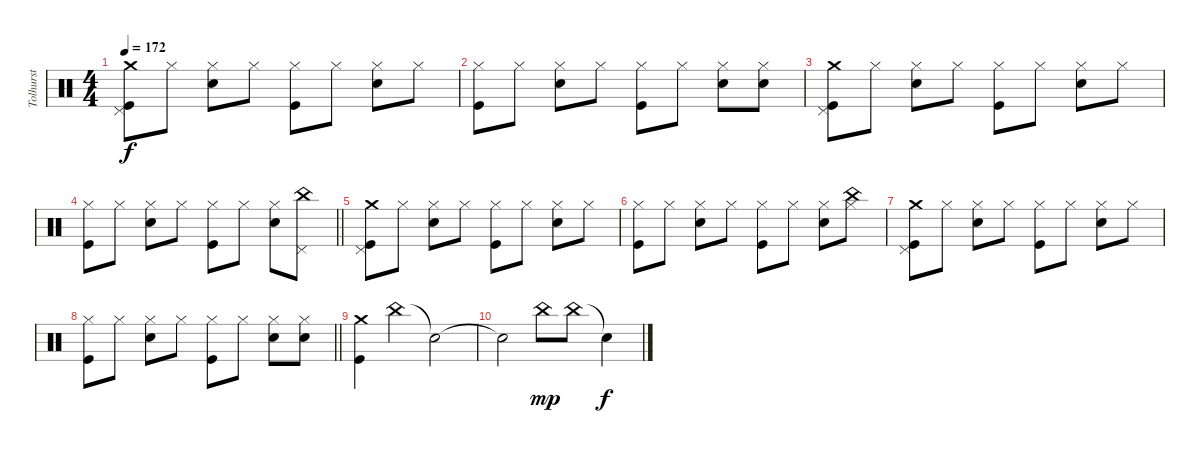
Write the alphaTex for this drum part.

\track ("Tolhurst" "Tolhurst") {instrument percussion}
\staff {score}
\articulation defaults
\ts (4 4)
\tempo 172
\clef neutral
\ks c
("Crash medium (hit)" "Pedal Hi-Hat (hit)" "Kick (hit)").8{dy f} "Hi-Hat (closed)".8 ("Hi-Hat (closed)" "Snare (hit) 2").8 "Hi-Hat (closed)".8 ("Hi-Hat (closed)" "Kick (hit)").8 "Hi-Hat (closed)".8 ("Hi-Hat (closed)" "Snare (hit) 2").8 "Hi-Hat (closed)".8 |
("Hi-Hat (closed)" "Kick (hit)").8 "Hi-Hat (closed)".8 ("Hi-Hat (closed)" "Snare (hit) 2").8 "Hi-Hat (closed)".8 ("Hi-Hat (closed)" "Kick (hit)").8 "Hi-Hat (closed)".8 ("Hi-Hat (closed)" "Snare (hit) 2").8 ("Hi-Hat (closed)" "Snare (hit) 2").8 |
("Crash medium (hit)" "Pedal Hi-Hat (hit)" "Kick (hit)").8 "Hi-Hat (closed)".8 ("Hi-Hat (closed)" "Snare (hit) 2").8 "Hi-Hat (closed)".8 ("Hi-Hat (closed)" "Kick (hit)").8 "Hi-Hat (closed)".8 ("Hi-Hat (closed)" "Snare (hit) 2").8 "Hi-Hat (closed)".8 |
\barLineRight lightlight
("Hi-Hat (closed)" "Kick (hit)").8 "Hi-Hat (closed)".8 ("Hi-Hat (closed)" "Snare (hit) 2").8 "Hi-Hat (closed)".8 ("Hi-Hat (closed)" "Kick (hit)").8 "Hi-Hat (closed)".8 ("Hi-Hat (closed)" "Snare (hit) 2").8 ("China (hit)" "Pedal Hi-Hat (hit)").8 |
("Crash medium (hit)" "Pedal Hi-Hat (hit)" "Kick (hit)").8 "Hi-Hat (closed)".8 ("Hi-Hat (closed)" "Snare (hit) 2").8 "Hi-Hat (closed)".8 ("Hi-Hat (closed)" "Kick (hit)").8 "Hi-Hat (closed)".8 ("Hi-Hat (closed)" "Snare (hit) 2").8 "Hi-Hat (closed)".8 |
("Hi-Hat (closed)" "Kick (hit)").8 "Hi-Hat (closed)".8 ("Hi-Hat (closed)" "Snare (hit) 2").8 "Hi-Hat (closed)".8 ("Hi-Hat (closed)" "Kick (hit)").8 "Hi-Hat (closed)".8 ("Hi-Hat (closed)" "Snare (hit) 2").8 ("China (hit)" "Hi-Hat (closed)").8 |
("Crash medium (hit)" "Pedal Hi-Hat (hit)" "Kick (hit)").8 "Hi-Hat (closed)".8 ("Hi-Hat (closed)" "Snare (hit) 2").8 "Hi-Hat (closed)".8 ("Hi-Hat (closed)" "Kick (hit)").8 "Hi-Hat (closed)".8 ("Hi-Hat (closed)" "Snare (hit) 2").8 "Hi-Hat (closed)".8 |
\barLineRight lightlight
("Hi-Hat (closed)" "Kick (hit)").8 "Hi-Hat (closed)".8 ("Hi-Hat (closed)" "Snare (hit) 2").8 "Hi-Hat (closed)".8 ("Hi-Hat (closed)" "Kick (hit)").8 "Hi-Hat (closed)".8 ("Hi-Hat (closed)" "Snare (hit) 2").8 ("Hi-Hat (closed)" "Snare (hit) 2").8 |
("Crash medium (hit)" "Kick (hit)").4 "China (hit)".4 "Snare (hit)"{t}.2 |
"Snare (hit)"{t}.2 "China (hit)".8{dy mp} "China (hit)".8 "Snare (hit)"{t}.4{dy f}
